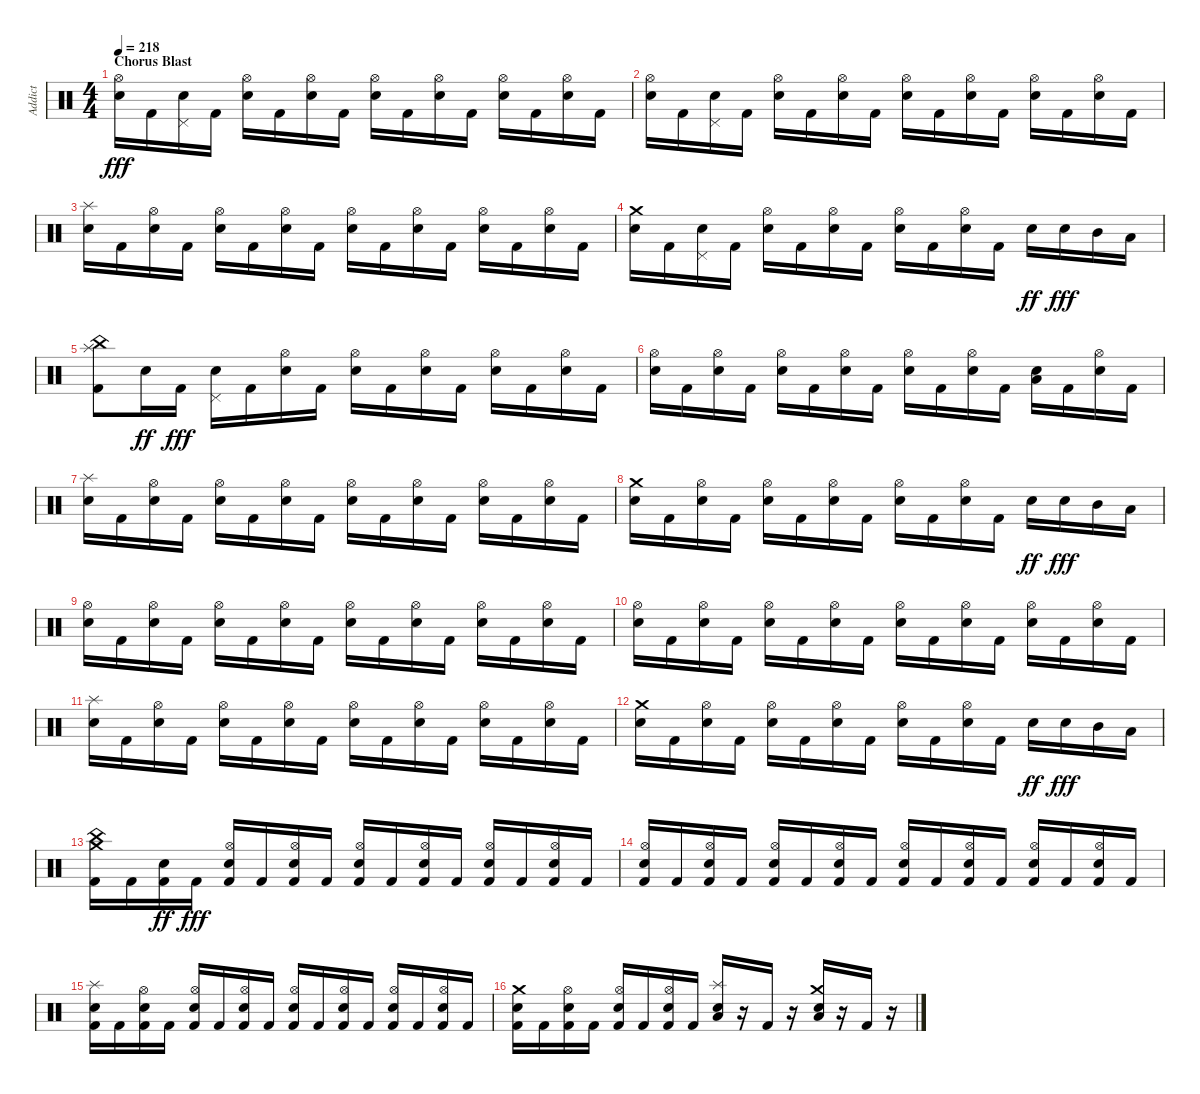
\track ("Addict" "Addict") {instrument percussion}
\staff {score}
\articulation defaults
\ts (4 4)
\section ("" "Chorus Blast")
\tempo 218
\clef neutral
\ks c
("Snare (hit) 2" "Hi-Hat (open)").16{dy fff} "Kick (hit) 2".16 ("Snare (hit) 2" "Pedal Hi-Hat (hit)").16 "Kick (hit) 2".16 ("Snare (hit) 2" "Hi-Hat (open)").16 "Kick (hit) 2".16 ("Snare (hit) 2" "Hi-Hat (open)").16 "Kick (hit) 2".16 ("Snare (hit) 2" "Hi-Hat (open)").16 "Kick (hit) 2".16 ("Snare (hit) 2" "Hi-Hat (open)").16 "Kick (hit) 2".16 ("Snare (hit) 2" "Hi-Hat (open)").16 "Kick (hit) 2".16 ("Snare (hit) 2" "Hi-Hat (open)").16 "Kick (hit) 2".16 |
("Snare (hit) 2" "Hi-Hat (open)").16 "Kick (hit) 2".16 ("Snare (hit) 2" "Pedal Hi-Hat (hit)").16 "Kick (hit) 2".16 ("Snare (hit) 2" "Hi-Hat (open)").16 "Kick (hit) 2".16 ("Snare (hit) 2" "Hi-Hat (open)").16 "Kick (hit) 2".16 ("Snare (hit) 2" "Hi-Hat (open)").16 "Kick (hit) 2".16 ("Snare (hit) 2" "Hi-Hat (open)").16 "Kick (hit) 2".16 ("Snare (hit) 2" "Hi-Hat (open)").16 "Kick (hit) 2".16 ("Snare (hit) 2" "Hi-Hat (open)").16 "Kick (hit) 2".16 |
("Snare (hit) 2" "Splash (hit)").16 "Kick (hit) 2".16 ("Snare (hit) 2" "Hi-Hat (open)").16 "Kick (hit) 2".16 ("Snare (hit) 2" "Hi-Hat (open)").16 "Kick (hit) 2".16 ("Snare (hit) 2" "Hi-Hat (open)").16 "Kick (hit) 2".16 ("Snare (hit) 2" "Hi-Hat (open)").16 "Kick (hit) 2".16 ("Snare (hit) 2" "Hi-Hat (open)").16 "Kick (hit) 2".16 ("Snare (hit) 2" "Hi-Hat (open)").16 "Kick (hit) 2".16 ("Snare (hit) 2" "Hi-Hat (open)").16 "Kick (hit) 2".16 |
("Snare (hit) 2" "Crash medium (hit)").16 "Kick (hit) 2".16 ("Snare (hit) 2" "Pedal Hi-Hat (hit)").16 "Kick (hit) 2".16 ("Snare (hit) 2" "Hi-Hat (open)").16 "Kick (hit) 2".16 ("Snare (hit) 2" "Hi-Hat (open)").16 "Kick (hit) 2".16 ("Snare (hit) 2" "Hi-Hat (open)").16 "Kick (hit) 2".16 ("Snare (hit) 2" "Hi-Hat (open)").16 "Kick (hit) 2".16 "Snare (hit) 2".16{dy ff} "Snare (hit) 2".16{dy fff} "Mid Tom (hit)".16 "Low Tom (hit)".16 |
("Kick (hit) 2" "Splash (hit)" "China (hit)").8 "Snare (hit) 2".16{dy ff} "Kick (hit) 2".16{dy fff} ("Snare (hit) 2" "Pedal Hi-Hat (hit)").16 "Kick (hit) 2".16 ("Snare (hit) 2" "Hi-Hat (open)").16 "Kick (hit) 2".16 ("Snare (hit) 2" "Hi-Hat (open)").16 "Kick (hit) 2".16 ("Snare (hit) 2" "Hi-Hat (open)").16 "Kick (hit) 2".16 ("Snare (hit) 2" "Hi-Hat (open)").16 "Kick (hit) 2".16 ("Snare (hit) 2" "Hi-Hat (open)").16 "Kick (hit) 2".16 |
("Snare (hit) 2" "Hi-Hat (open)").16 "Kick (hit) 2".16 ("Snare (hit) 2" "Hi-Hat (open)").16 "Kick (hit) 2".16 ("Snare (hit) 2" "Hi-Hat (open)").16 "Kick (hit) 2".16 ("Snare (hit) 2" "Hi-Hat (open)").16 "Kick (hit) 2".16 ("Snare (hit) 2" "Hi-Hat (open)").16 "Kick (hit) 2".16 ("Snare (hit) 2" "Hi-Hat (open)").16 "Kick (hit) 2".16 ("Snare (hit) 2" "Low Floor Tom (hit)").16 "Kick (hit) 2".16 ("Snare (hit) 2" "Hi-Hat (open)").16 "Kick (hit) 2".16 |
("Snare (hit) 2" "Splash (hit)").16 "Kick (hit) 2".16 ("Snare (hit) 2" "Hi-Hat (open)").16 "Kick (hit) 2".16 ("Snare (hit) 2" "Hi-Hat (open)").16 "Kick (hit) 2".16 ("Snare (hit) 2" "Hi-Hat (open)").16 "Kick (hit) 2".16 ("Snare (hit) 2" "Hi-Hat (open)").16 "Kick (hit) 2".16 ("Snare (hit) 2" "Hi-Hat (open)").16 "Kick (hit) 2".16 ("Snare (hit) 2" "Hi-Hat (open)").16 "Kick (hit) 2".16 ("Snare (hit) 2" "Hi-Hat (open)").16 "Kick (hit) 2".16 |
("Snare (hit) 2" "Crash medium (hit)").16 "Kick (hit) 2".16 ("Snare (hit) 2" "Hi-Hat (open)").16 "Kick (hit) 2".16 ("Snare (hit) 2" "Hi-Hat (open)").16 "Kick (hit) 2".16 ("Snare (hit) 2" "Hi-Hat (open)").16 "Kick (hit) 2".16 ("Snare (hit) 2" "Hi-Hat (open)").16 "Kick (hit) 2".16 ("Snare (hit) 2" "Hi-Hat (open)").16 "Kick (hit) 2".16 "Snare (hit) 2".16{dy ff} "Snare (hit) 2".16{dy fff} "Mid Tom (hit)".16 "Low Tom (hit)".16 |
("Snare (hit) 2" "Hi-Hat (open)").16 "Kick (hit) 2".16 ("Snare (hit) 2" "Hi-Hat (open)").16 "Kick (hit) 2".16 ("Snare (hit) 2" "Hi-Hat (open)").16 "Kick (hit) 2".16 ("Snare (hit) 2" "Hi-Hat (open)").16 "Kick (hit) 2".16 ("Snare (hit) 2" "Hi-Hat (open)").16 "Kick (hit) 2".16 ("Snare (hit) 2" "Hi-Hat (open)").16 "Kick (hit) 2".16 ("Snare (hit) 2" "Hi-Hat (open)").16 "Kick (hit) 2".16 ("Snare (hit) 2" "Hi-Hat (open)").16 "Kick (hit) 2".16 |
("Snare (hit) 2" "Hi-Hat (open)").16 "Kick (hit) 2".16 ("Snare (hit) 2" "Hi-Hat (open)").16 "Kick (hit) 2".16 ("Snare (hit) 2" "Hi-Hat (open)").16 "Kick (hit) 2".16 ("Snare (hit) 2" "Hi-Hat (open)").16 "Kick (hit) 2".16 ("Snare (hit) 2" "Hi-Hat (open)").16 "Kick (hit) 2".16 ("Snare (hit) 2" "Hi-Hat (open)").16 "Kick (hit) 2".16 ("Snare (hit) 2" "Hi-Hat (open)").16 "Kick (hit) 2".16 ("Snare (hit) 2" "Hi-Hat (open)").16 "Kick (hit) 2".16 |
("Snare (hit) 2" "Splash (hit)").16 "Kick (hit) 2".16 ("Snare (hit) 2" "Hi-Hat (open)").16 "Kick (hit) 2".16 ("Snare (hit) 2" "Hi-Hat (open)").16 "Kick (hit) 2".16 ("Snare (hit) 2" "Hi-Hat (open)").16 "Kick (hit) 2".16 ("Snare (hit) 2" "Hi-Hat (open)").16 "Kick (hit) 2".16 ("Snare (hit) 2" "Hi-Hat (open)").16 "Kick (hit) 2".16 ("Snare (hit) 2" "Hi-Hat (open)").16 "Kick (hit) 2".16 ("Snare (hit) 2" "Hi-Hat (open)").16 "Kick (hit) 2".16 |
("Snare (hit) 2" "Crash medium (hit)").16 "Kick (hit) 2".16 ("Snare (hit) 2" "Hi-Hat (open)").16 "Kick (hit) 2".16 ("Snare (hit) 2" "Hi-Hat (open)").16 "Kick (hit) 2".16 ("Snare (hit) 2" "Hi-Hat (open)").16 "Kick (hit) 2".16 ("Snare (hit) 2" "Hi-Hat (open)").16 "Kick (hit) 2".16 ("Snare (hit) 2" "Hi-Hat (open)").16 "Kick (hit) 2".16 "Snare (hit) 2".16{dy ff} "Snare (hit) 2".16{dy fff} "Mid Tom (hit)".16 "Low Tom (hit)".16 |
("Kick (hit) 2" "Crash medium (hit)" "China (hit)").16 "Kick (hit) 2".16 ("Kick (hit) 2" "Snare (hit) 2").16{dy ff} "Kick (hit) 2".16{dy fff} ("Kick (hit) 2" "Snare (hit) 2" "Hi-Hat (open)").16 "Kick (hit) 2".16 ("Kick (hit) 2" "Snare (hit) 2" "Hi-Hat (open)").16 "Kick (hit) 2".16 ("Kick (hit) 2" "Snare (hit) 2" "Hi-Hat (open)").16 "Kick (hit) 2".16 ("Kick (hit) 2" "Snare (hit) 2" "Hi-Hat (open)").16 "Kick (hit) 2".16 ("Kick (hit) 2" "Snare (hit) 2" "Hi-Hat (open)").16 "Kick (hit) 2".16 ("Kick (hit) 2" "Snare (hit) 2" "Hi-Hat (open)").16 "Kick (hit) 2".16 |
("Kick (hit) 2" "Snare (hit) 2" "Hi-Hat (open)").16 "Kick (hit) 2".16 ("Kick (hit) 2" "Snare (hit) 2" "Hi-Hat (open)").16 "Kick (hit) 2".16 ("Kick (hit) 2" "Snare (hit) 2" "Hi-Hat (open)").16 "Kick (hit) 2".16 ("Kick (hit) 2" "Snare (hit) 2" "Hi-Hat (open)").16 "Kick (hit) 2".16 ("Kick (hit) 2" "Snare (hit) 2" "Hi-Hat (open)").16 "Kick (hit) 2".16 ("Kick (hit) 2" "Snare (hit) 2" "Hi-Hat (open)").16 "Kick (hit) 2".16 ("Kick (hit) 2" "Snare (hit) 2" "Hi-Hat (open)").16 "Kick (hit) 2".16 ("Kick (hit) 2" "Snare (hit) 2" "Hi-Hat (open)").16 "Kick (hit) 2".16 |
("Kick (hit) 2" "Snare (hit) 2" "Splash (hit)").16 "Kick (hit) 2".16 ("Kick (hit) 2" "Snare (hit) 2" "Hi-Hat (open)").16 "Kick (hit) 2".16 ("Kick (hit) 2" "Snare (hit) 2" "Hi-Hat (open)").16 "Kick (hit) 2".16 ("Kick (hit) 2" "Snare (hit) 2" "Hi-Hat (open)").16 "Kick (hit) 2".16 ("Kick (hit) 2" "Snare (hit) 2" "Hi-Hat (open)").16 "Kick (hit) 2".16 ("Kick (hit) 2" "Snare (hit) 2" "Hi-Hat (open)").16 "Kick (hit) 2".16 ("Kick (hit) 2" "Snare (hit) 2" "Hi-Hat (open)").16 "Kick (hit) 2".16 ("Kick (hit) 2" "Snare (hit) 2" "Hi-Hat (open)").16 "Kick (hit) 2".16 |
("Kick (hit) 2" "Snare (hit) 2" "Crash medium (hit)").16 "Kick (hit) 2".16 ("Kick (hit) 2" "Snare (hit) 2" "Hi-Hat (open)").16 "Kick (hit) 2".16 ("Kick (hit) 2" "Snare (hit) 2" "Hi-Hat (open)").16 "Kick (hit) 2".16 ("Kick (hit) 2" "Snare (hit) 2" "Hi-Hat (open)").16 "Kick (hit) 2".16 ("Snare (hit) 2" "Low Floor Tom (hit)" "Splash (hit)").16 r.16 "Kick (hit) 2".16 r.16 ("Snare (hit) 2" "Low Floor Tom (hit)" "Crash medium (hit)").16 r.16 "Kick (hit) 2".16 r.16
